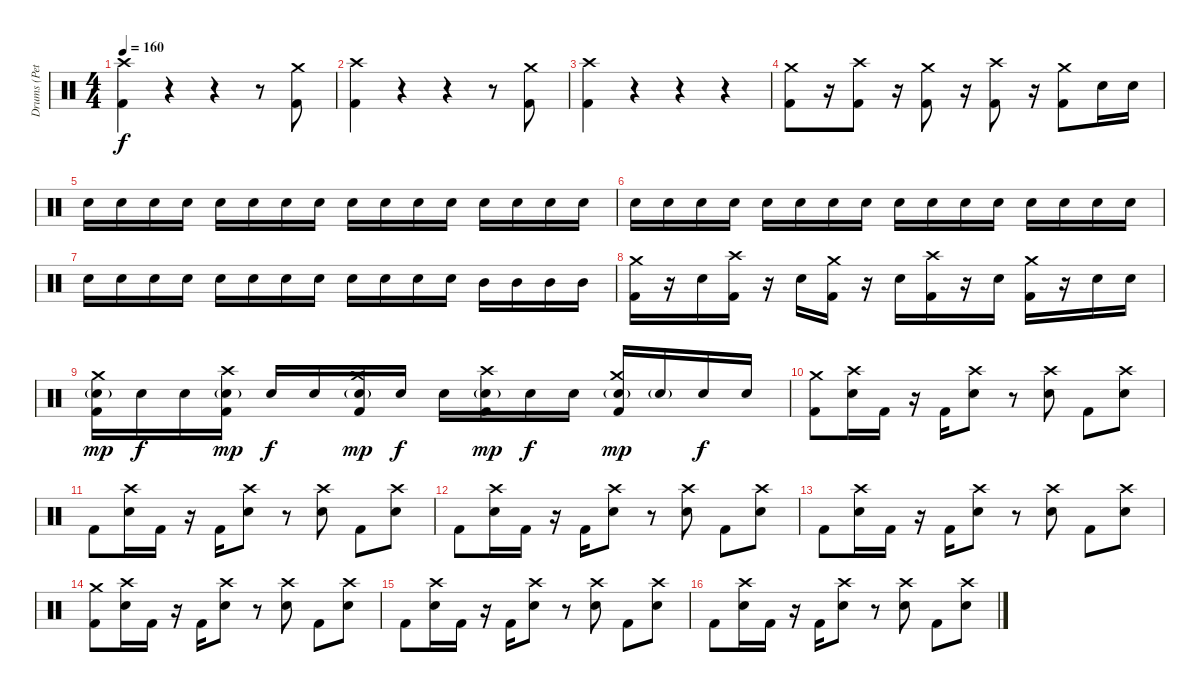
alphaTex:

\track ("Drums (Pete)" "Drums (Pet") {instrument percussion}
\staff {score}
\articulation defaults
\ts (4 4)
\tempo 160
\clef neutral
\ks c
("Crash high (hit)" "Kick (hit) 2").4{dy f} r.4 r.4 r.8 ("Crash medium (hit)" "Kick (hit) 2").8 |
("Crash high (hit)" "Kick (hit) 2").4 r.4 r.4 r.8 ("Crash medium (hit)" "Kick (hit) 2").8 |
("Crash high (hit)" "Kick (hit) 2").4 r.4 r.4 r.4 |
("Crash medium (hit)" "Kick (hit) 2").8 r.16 ("Crash high (hit)" "Kick (hit) 2").8 r.16 ("Crash medium (hit)" "Kick (hit) 2").8 r.16 ("Crash high (hit)" "Kick (hit) 2").8 r.16 ("Crash medium (hit)" "Kick (hit) 2").8 "Snare (hit) 2".16 "Snare (hit) 2".16 |
"Snare (hit) 2".16 "Snare (hit) 2".16 "Snare (hit) 2".16 "Snare (hit) 2".16 "Snare (hit) 2".16 "Snare (hit) 2".16 "Snare (hit) 2".16 "Snare (hit) 2".16 "Snare (hit) 2".16 "Snare (hit) 2".16 "Snare (hit) 2".16 "Snare (hit) 2".16 "Snare (hit) 2".16 "Snare (hit) 2".16 "Snare (hit) 2".16 "Snare (hit) 2".16 |
"Snare (hit) 2".16 "Snare (hit) 2".16 "Snare (hit) 2".16 "Snare (hit) 2".16 "Snare (hit) 2".16 "Snare (hit) 2".16 "Snare (hit) 2".16 "Snare (hit) 2".16 "Snare (hit) 2".16 "Snare (hit) 2".16 "Snare (hit) 2".16 "Snare (hit) 2".16 "Snare (hit) 2".16 "Snare (hit) 2".16 "Snare (hit) 2".16 "Snare (hit) 2".16 |
"Snare (hit) 2".16 "Snare (hit) 2".16 "Snare (hit) 2".16 "Snare (hit) 2".16 "Snare (hit) 2".16 "Snare (hit) 2".16 "Snare (hit) 2".16 "Snare (hit) 2".16 "Snare (hit) 2".16 "Snare (hit) 2".16 "Snare (hit) 2".16 "Snare (hit) 2".16 "Mid Tom (hit)".16 "Mid Tom (hit)".16 "Mid Tom (hit)".16 "Mid Tom (hit)".16 |
("Crash medium (hit)" "Kick (hit) 2").16 r.16 "Snare (hit) 2".16 ("Crash high (hit)" "Kick (hit) 2").16 r.16 "Snare (hit) 2".16 ("Crash medium (hit)" "Kick (hit) 2").16 r.16 "Snare (hit) 2".16 ("Crash high (hit)" "Kick (hit) 2").16 r.16 "Snare (hit) 2".16 ("Crash medium (hit)" "Kick (hit) 2").16 r.16 "Snare (hit) 2".16 "Snare (hit) 2".16 |
("Crash medium (hit)" "Snare (hit) 2"{g} "Kick (hit) 2").16{dy mp} "Snare (hit) 2".16{dy f} "Snare (hit) 2".16 ("Crash high (hit)" "Snare (hit) 2"{g} "Kick (hit) 2").16{dy mp} "Snare (hit) 2".16{dy f} "Snare (hit) 2".16 ("Crash medium (hit)" "Snare (hit) 2"{g} "Kick (hit) 2").16{dy mp} "Snare (hit) 2".16{dy f} "Snare (hit) 2".16 ("Crash high (hit)" "Snare (hit) 2"{g} "Kick (hit) 2").16{dy mp} "Snare (hit) 2".16{dy f} "Snare (hit) 2".16 ("Crash medium (hit)" "Snare (hit) 2"{g} "Kick (hit) 2").16{dy mp} "Snare (hit) 2"{g}.16 "Snare (hit) 2".16{dy f} "Snare (hit) 2".16 |
("Crash medium (hit)" "Kick (hit) 2").8 ("Crash high (hit)" "Snare (hit) 2").16 "Kick (hit) 2".16 r.16 "Kick (hit) 2".16 ("Crash high (hit)" "Snare (hit) 2").8 r.8 ("Crash high (hit)" "Snare (hit) 2").8 "Kick (hit) 2".8 ("Crash high (hit)" "Snare (hit) 2").8 |
"Kick (hit) 2".8 ("Crash high (hit)" "Snare (hit) 2").16 "Kick (hit) 2".16 r.16 "Kick (hit) 2".16 ("Crash high (hit)" "Snare (hit) 2").8 r.8 ("Crash high (hit)" "Snare (hit) 2").8 "Kick (hit) 2".8 ("Crash high (hit)" "Snare (hit) 2").8 |
"Kick (hit) 2".8 ("Crash high (hit)" "Snare (hit) 2").16 "Kick (hit) 2".16 r.16 "Kick (hit) 2".16 ("Crash high (hit)" "Snare (hit) 2").8 r.8 ("Crash high (hit)" "Snare (hit) 2").8 "Kick (hit) 2".8 ("Crash high (hit)" "Snare (hit) 2").8 |
"Kick (hit) 2".8 ("Crash high (hit)" "Snare (hit) 2").16 "Kick (hit) 2".16 r.16 "Kick (hit) 2".16 ("Crash high (hit)" "Snare (hit) 2").8 r.8 ("Crash high (hit)" "Snare (hit) 2").8 "Kick (hit) 2".8 ("Crash high (hit)" "Snare (hit) 2").8 |
("Crash medium (hit)" "Kick (hit) 2").8 ("Crash high (hit)" "Snare (hit) 2").16 "Kick (hit) 2".16 r.16 "Kick (hit) 2".16 ("Crash high (hit)" "Snare (hit) 2").8 r.8 ("Crash high (hit)" "Snare (hit) 2").8 "Kick (hit) 2".8 ("Crash high (hit)" "Snare (hit) 2").8 |
"Kick (hit) 2".8 ("Crash high (hit)" "Snare (hit) 2").16 "Kick (hit) 2".16 r.16 "Kick (hit) 2".16 ("Crash high (hit)" "Snare (hit) 2").8 r.8 ("Crash high (hit)" "Snare (hit) 2").8 "Kick (hit) 2".8 ("Crash high (hit)" "Snare (hit) 2").8 |
"Kick (hit) 2".8 ("Crash high (hit)" "Snare (hit) 2").16 "Kick (hit) 2".16 r.16 "Kick (hit) 2".16 ("Crash high (hit)" "Snare (hit) 2").8 r.8 ("Crash high (hit)" "Snare (hit) 2").8 "Kick (hit) 2".8 ("Crash high (hit)" "Snare (hit) 2").8
